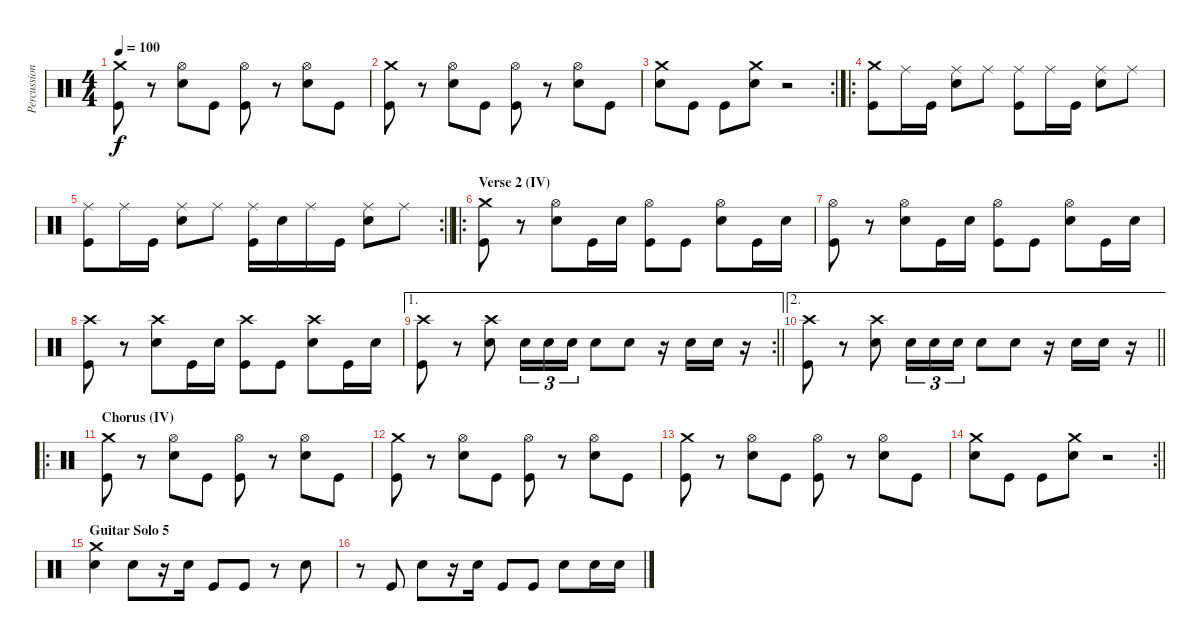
\track ("Percussion" "Percussion") {instrument percussion}
\staff {score}
\articulation defaults
\ts (4 4)
\tempo 100
\clef neutral
\ks c
("Crash medium (hit)" "Kick (hit)").8{dy f} r.8 ("Hi-Hat (open)" "Snare (hit) 2").8 "Kick (hit)".8 ("Hi-Hat (open)" "Kick (hit)").8 r.8 ("Hi-Hat (open)" "Snare (hit) 2").8 "Kick (hit)".8 |
("Crash medium (hit)" "Kick (hit)").8 r.8 ("Hi-Hat (open)" "Snare (hit) 2").8 "Kick (hit)".8 ("Hi-Hat (open)" "Kick (hit)").8 r.8 ("Hi-Hat (open)" "Snare (hit) 2").8 "Kick (hit)".8 |
\rc 2
("Crash medium (hit)" "Snare (hit) 2").8 "Kick (hit)".8 "Kick (hit)".8 ("Crash medium (hit)" "Snare (hit) 2").8 r.2 |
\ro
("Crash medium (hit)" "Kick (hit)").8 "Ride (middle)".16 "Kick (hit)".16 ("Ride (middle)" "Snare (hit) 2").8 "Ride (middle)".8 ("Ride (middle)" "Kick (hit)").8 "Ride (middle)".16 "Kick (hit)".16 ("Ride (middle)" "Snare (hit) 2").8 "Ride (middle)".8 |
\rc 2
\barLineRight lightlight
("Ride (middle)" "Kick (hit)").8 "Ride (middle)".16 "Kick (hit)".16 ("Ride (middle)" "Snare (hit) 2").8 "Ride (middle)".8 ("Ride (middle)" "Kick (hit)").16 "Snare (hit) 2".16 "Ride (middle)".16 "Kick (hit)".16 ("Ride (middle)" "Snare (hit) 2").8 "Ride (middle)".8 |
\ro
\section ("" "Verse 2 (IV)")
("Crash medium (hit)" "Kick (hit)").8 r.8 ("Hi-Hat (open)" "Snare (hit) 2").8 "Kick (hit)".16 "Snare (hit) 2".16 ("Hi-Hat (open)" "Kick (hit)").8 "Kick (hit)".8 ("Hi-Hat (open)" "Snare (hit) 2").8 "Kick (hit)".16 "Snare (hit) 2".16 |
("Hi-Hat (open)" "Kick (hit)").8 r.8 ("Hi-Hat (open)" "Snare (hit) 2").8 "Kick (hit)".16 "Snare (hit) 2".16 ("Hi-Hat (open)" "Kick (hit)").8 "Kick (hit)".8 ("Hi-Hat (open)" "Snare (hit) 2").8 "Kick (hit)".16 "Snare (hit) 2".16 |
("Crash high (hit)" "Kick (hit)").8 r.8 ("Crash high (hit)" "Snare (hit) 2").8 "Kick (hit)".16 "Snare (hit) 2".16 ("Crash high (hit)" "Kick (hit)").8 "Kick (hit)".8 ("Crash high (hit)" "Snare (hit) 2").8 "Kick (hit)".16 "Snare (hit) 2".16 |
\ae 1
\rc 2
\barLineRight lightlight
("Crash high (hit)" "Kick (hit)").8 r.8 ("Crash high (hit)" "Snare (hit) 2").8 "Snare (hit) 2".16{tu (3 2)} "Snare (hit) 2".16{tu (3 2)} "Snare (hit) 2".16{tu (3 2)} "Snare (hit) 2".8 "Snare (hit) 2".8 r.16 "Snare (hit) 2".16 "Snare (hit) 2".16 r.16 |
\ae 2
\barLineRight lightlight
("Crash high (hit)" "Kick (hit)").8 r.8 ("Crash high (hit)" "Snare (hit) 2").8 "Snare (hit) 2".16{tu (3 2)} "Snare (hit) 2".16{tu (3 2)} "Snare (hit) 2".16{tu (3 2)} "Snare (hit) 2".8 "Snare (hit) 2".8 r.16 "Snare (hit) 2".16 "Snare (hit) 2".16 r.16 |
\ro
\section ("" "Chorus (IV)")
("Crash medium (hit)" "Kick (hit)").8 r.8 ("Hi-Hat (open)" "Snare (hit) 2").8 "Kick (hit)".8 ("Hi-Hat (open)" "Kick (hit)").8 r.8 ("Hi-Hat (open)" "Snare (hit) 2").8 "Kick (hit)".8 |
("Crash medium (hit)" "Kick (hit)").8 r.8 ("Hi-Hat (open)" "Snare (hit) 2").8 "Kick (hit)".8 ("Hi-Hat (open)" "Kick (hit)").8 r.8 ("Hi-Hat (open)" "Snare (hit) 2").8 "Kick (hit)".8 |
("Crash medium (hit)" "Kick (hit)").8 r.8 ("Hi-Hat (open)" "Snare (hit) 2").8 "Kick (hit)".8 ("Hi-Hat (open)" "Kick (hit)").8 r.8 ("Hi-Hat (open)" "Snare (hit) 2").8 "Kick (hit)".8 |
\rc 2
\barLineRight lightlight
("Crash medium (hit)" "Snare (hit) 2").8 "Kick (hit)".8 "Kick (hit)".8 ("Crash medium (hit)" "Snare (hit) 2").8 r.2 |
\section ("" "Guitar Solo 5")
("Crash medium (hit)" "Snare (hit) 2").4 "Snare (hit) 2".8 r.16 "Snare (hit) 2".16 "Kick (hit)".8 "Kick (hit)".8 r.8 "Snare (hit) 2".8 |
r.8 "Kick (hit)".8 "Snare (hit) 2".8 r.16 "Snare (hit) 2".16 "Kick (hit)".8 "Kick (hit)".8 "Snare (hit) 2".8 "Snare (hit) 2".16 "Snare (hit) 2".16
